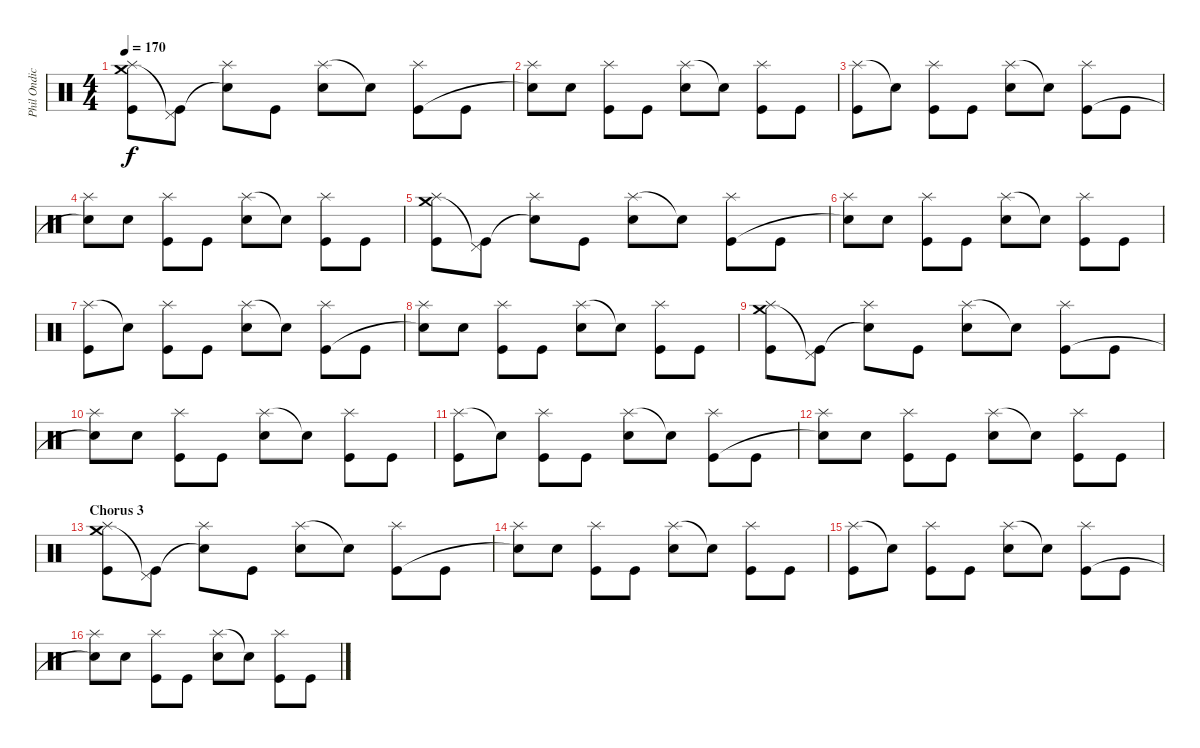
\track ("Phil Ondich (Drums)" "Phil Ondic") {instrument percussion}
\staff {score}
\articulation defaults
\ts (4 4)
\tempo 170
\clef neutral
\ks c
("Crash medium (hit)" "Splash (hit)" "Kick (hit)").8{dy f} ("Pedal Hi-Hat (hit)"{t} "Kick (hit)").8 ("Splash (hit)" "Snare (hit)"{t}).8 "Kick (hit)".8 ("Splash (hit)" "Electric Snare (hit)").8 "Snare (hit)"{t}.8 ("Splash (hit)" "Kick (hit)").8 "Kick (hit)".8 |
("Splash (hit)" "Snare (hit)"{t}).8 "Electric Snare (hit)".8 ("Splash (hit)" "Kick (hit)").8 "Kick (hit)".8 ("Splash (hit)" "Electric Snare (hit)").8 "Snare (hit)"{t}.8 ("Splash (hit)" "Kick (hit)").8 "Kick (hit)".8 |
("Splash (hit)" "Kick (hit)").8 "Snare (hit)"{t}.8 ("Splash (hit)" "Kick (hit)").8 "Kick (hit)".8 ("Splash (hit)" "Electric Snare (hit)").8 "Snare (hit)"{t}.8 ("Splash (hit)" "Kick (hit)").8 "Kick (hit)".8 |
("Splash (hit)" "Snare (hit)"{t}).8 "Electric Snare (hit)".8 ("Splash (hit)" "Kick (hit)").8 "Kick (hit)".8 ("Splash (hit)" "Electric Snare (hit)").8 "Snare (hit)"{t}.8 ("Splash (hit)" "Kick (hit)").8 "Kick (hit)".8 |
("Crash medium (hit)" "Splash (hit)" "Kick (hit)").8 ("Pedal Hi-Hat (hit)"{t} "Kick (hit)").8 ("Splash (hit)" "Snare (hit)"{t}).8 "Kick (hit)".8 ("Splash (hit)" "Electric Snare (hit)").8 "Snare (hit)"{t}.8 ("Splash (hit)" "Kick (hit)").8 "Kick (hit)".8 |
("Splash (hit)" "Snare (hit)"{t}).8 "Electric Snare (hit)".8 ("Splash (hit)" "Kick (hit)").8 "Kick (hit)".8 ("Splash (hit)" "Electric Snare (hit)").8 "Snare (hit)"{t}.8 ("Splash (hit)" "Kick (hit)").8 "Kick (hit)".8 |
("Splash (hit)" "Kick (hit)").8 "Snare (hit)"{t}.8 ("Splash (hit)" "Kick (hit)").8 "Kick (hit)".8 ("Splash (hit)" "Electric Snare (hit)").8 "Snare (hit)"{t}.8 ("Splash (hit)" "Kick (hit)").8 "Kick (hit)".8 |
("Splash (hit)" "Snare (hit)"{t}).8 "Electric Snare (hit)".8 ("Splash (hit)" "Kick (hit)").8 "Kick (hit)".8 ("Splash (hit)" "Electric Snare (hit)").8 "Snare (hit)"{t}.8 ("Splash (hit)" "Kick (hit)").8 "Kick (hit)".8 |
("Crash medium (hit)" "Splash (hit)" "Kick (hit)").8 ("Pedal Hi-Hat (hit)"{t} "Kick (hit)").8 ("Splash (hit)" "Snare (hit)"{t}).8 "Kick (hit)".8 ("Splash (hit)" "Electric Snare (hit)").8 "Snare (hit)"{t}.8 ("Splash (hit)" "Kick (hit)").8 "Kick (hit)".8 |
("Splash (hit)" "Snare (hit)"{t}).8 "Electric Snare (hit)".8 ("Splash (hit)" "Kick (hit)").8 "Kick (hit)".8 ("Splash (hit)" "Electric Snare (hit)").8 "Snare (hit)"{t}.8 ("Splash (hit)" "Kick (hit)").8 "Kick (hit)".8 |
("Splash (hit)" "Kick (hit)").8 "Snare (hit)"{t}.8 ("Splash (hit)" "Kick (hit)").8 "Kick (hit)".8 ("Splash (hit)" "Electric Snare (hit)").8 "Snare (hit)"{t}.8 ("Splash (hit)" "Kick (hit)").8 "Kick (hit)".8 |
("Splash (hit)" "Snare (hit)"{t}).8 "Electric Snare (hit)".8 ("Splash (hit)" "Kick (hit)").8 "Kick (hit)".8 ("Splash (hit)" "Electric Snare (hit)").8 "Snare (hit)"{t}.8 ("Splash (hit)" "Kick (hit)").8 "Kick (hit)".8 |
\section ("" "Chorus 3")
("Crash medium (hit)" "Splash (hit)" "Kick (hit)").8 ("Pedal Hi-Hat (hit)"{t} "Kick (hit)").8 ("Splash (hit)" "Snare (hit)"{t}).8 "Kick (hit)".8 ("Splash (hit)" "Electric Snare (hit)").8 "Snare (hit)"{t}.8 ("Splash (hit)" "Kick (hit)").8 "Kick (hit)".8 |
("Splash (hit)" "Snare (hit)"{t}).8 "Electric Snare (hit)".8 ("Splash (hit)" "Kick (hit)").8 "Kick (hit)".8 ("Splash (hit)" "Electric Snare (hit)").8 "Snare (hit)"{t}.8 ("Splash (hit)" "Kick (hit)").8 "Kick (hit)".8 |
("Splash (hit)" "Kick (hit)").8 "Snare (hit)"{t}.8 ("Splash (hit)" "Kick (hit)").8 "Kick (hit)".8 ("Splash (hit)" "Electric Snare (hit)").8 "Snare (hit)"{t}.8 ("Splash (hit)" "Kick (hit)").8 "Kick (hit)".8 |
("Splash (hit)" "Snare (hit)"{t}).8 "Electric Snare (hit)".8 ("Splash (hit)" "Kick (hit)").8 "Kick (hit)".8 ("Splash (hit)" "Electric Snare (hit)").8 "Snare (hit)"{t}.8 ("Splash (hit)" "Kick (hit)").8 "Kick (hit)".8
